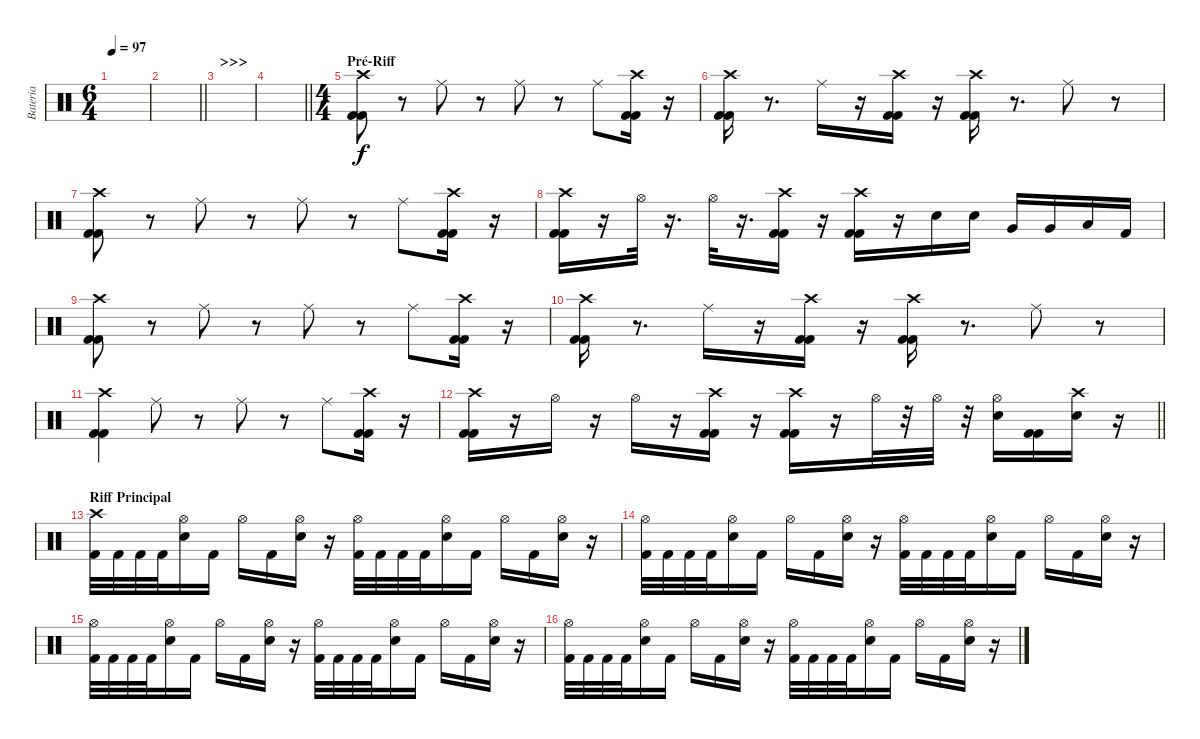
\track ("Bateria" "Bateria") {instrument percussion}
\staff {score}
\articulation defaults
\ts (6 4)
\tempo 97
\clef neutral
\ks c
|
\barLineRight lightlight
|
\section ("" ">>>")
|
\barLineRight lightlight
|
\ts (4 4)
\section ("" "Pré-Riff")
("Crash high (hit)" "Kick (hit) 2" "Kick (hit) 2").8 r.8 "Ride (middle)".8 r.8 "Ride (middle)".8 r.8 "Ride (middle)".8 ("Crash high (hit)" "Kick (hit) 2" "Kick (hit) 2").16 r.16 |
("Crash high (hit)" "Kick (hit) 2" "Kick (hit) 2").16 r.8{d} "Ride (middle)".16 r.16 ("Crash high (hit)" "Kick (hit) 2" "Kick (hit) 2").16 r.16 ("Crash high (hit)" "Kick (hit) 2" "Kick (hit) 2").16 r.8{d} "Ride (middle)".8 r.8 |
("Crash high (hit)" "Kick (hit) 2" "Kick (hit) 2").8 r.8 "Ride (middle)".8 r.8 "Ride (middle)".8 r.8 "Ride (middle)".8 ("Crash high (hit)" "Kick (hit) 2" "Kick (hit) 2").16 r.16 |
("Crash high (hit)" "Kick (hit) 2" "Kick (hit) 2").16 r.16 "Hi-Hat (open)".32 r.16{d} "Hi-Hat (open)".32 r.16{d} ("Crash high (hit)" "Kick (hit) 2" "Kick (hit) 2").16 r.16 ("Crash high (hit)" "Kick (hit) 2" "Kick (hit) 2").16 r.16 "Electric Snare (hit)".16 "Electric Snare (hit)".16 "Very Low Tom (hit)".16 "Very Low Tom (hit)".16 "Low Floor Tom (hit)".16 "Kick (hit) 2".16 |
("Crash high (hit)" "Kick (hit) 2" "Kick (hit) 2").8 r.8 "Ride (middle)".8 r.8 "Ride (middle)".8 r.8 "Ride (middle)".8 ("Crash high (hit)" "Kick (hit) 2" "Kick (hit) 2").16 r.16 |
("Crash high (hit)" "Kick (hit) 2" "Kick (hit) 2").16 r.8{d} "Ride (middle)".16 r.16 ("Crash high (hit)" "Kick (hit) 2" "Kick (hit) 2").16 r.16 ("Crash high (hit)" "Kick (hit) 2" "Kick (hit) 2").16 r.8{d} "Ride (middle)".8 r.8 |
("Crash high (hit)" "Kick (hit) 2" "Kick (hit) 2").4 "Ride (middle)".8 r.8 "Ride (middle)".8 r.8 "Ride (middle)".8 ("Crash high (hit)" "Kick (hit) 2" "Kick (hit) 2").16 r.16 |
\barLineRight lightlight
("Crash high (hit)" "Kick (hit) 2" "Kick (hit) 2").16 r.16 "Hi-Hat (open)".16 r.16 "Hi-Hat (open)".16 r.16 ("Crash high (hit)" "Kick (hit) 2" "Kick (hit) 2").16 r.16 ("Crash high (hit)" "Kick (hit) 2" "Kick (hit) 2").16 r.16 "Hi-Hat (open)".32 r.32 "Hi-Hat (open)".32 r.32 ("Hi-Hat (open)" "Electric Snare (hit)").16 ("Kick (hit) 2" "Kick (hit) 2").16 ("Crash high (hit)" "Electric Snare (hit)").16 r.16 |
\section ("" "Riff Principal")
("Crash high (hit)" "Kick (hit) 2").32 "Kick (hit) 2".32 "Kick (hit) 2".32 "Kick (hit) 2".32 ("Hi-Hat (open)" "Electric Snare (hit)").16 "Kick (hit) 2".16 "Hi-Hat (open)".16 "Kick (hit) 2".16 ("Hi-Hat (open)" "Electric Snare (hit)").16 r.16 ("Hi-Hat (open)" "Kick (hit) 2").32 "Kick (hit) 2".32 "Kick (hit) 2".32 "Kick (hit) 2".32 ("Hi-Hat (open)" "Electric Snare (hit)").16 "Kick (hit) 2".16 "Hi-Hat (open)".16 "Kick (hit) 2".16 ("Hi-Hat (open)" "Electric Snare (hit)").16 r.16 |
("Hi-Hat (open)" "Kick (hit) 2").32 "Kick (hit) 2".32 "Kick (hit) 2".32 "Kick (hit) 2".32 ("Hi-Hat (open)" "Electric Snare (hit)").16 "Kick (hit) 2".16 "Hi-Hat (open)".16 "Kick (hit) 2".16 ("Hi-Hat (open)" "Electric Snare (hit)").16 r.16 ("Hi-Hat (open)" "Kick (hit) 2").32 "Kick (hit) 2".32 "Kick (hit) 2".32 "Kick (hit) 2".32 ("Hi-Hat (open)" "Electric Snare (hit)").16 "Kick (hit) 2".16 "Hi-Hat (open)".16 "Kick (hit) 2".16 ("Hi-Hat (open)" "Electric Snare (hit)").16 r.16 |
("Hi-Hat (open)" "Kick (hit) 2").32 "Kick (hit) 2".32 "Kick (hit) 2".32 "Kick (hit) 2".32 ("Hi-Hat (open)" "Electric Snare (hit)").16 "Kick (hit) 2".16 "Hi-Hat (open)".16 "Kick (hit) 2".16 ("Hi-Hat (open)" "Electric Snare (hit)").16 r.16 ("Hi-Hat (open)" "Kick (hit) 2").32 "Kick (hit) 2".32 "Kick (hit) 2".32 "Kick (hit) 2".32 ("Hi-Hat (open)" "Electric Snare (hit)").16 "Kick (hit) 2".16 "Hi-Hat (open)".16 "Kick (hit) 2".16 ("Hi-Hat (open)" "Electric Snare (hit)").16 r.16 |
("Hi-Hat (open)" "Kick (hit) 2").32 "Kick (hit) 2".32 "Kick (hit) 2".32 "Kick (hit) 2".32 ("Hi-Hat (open)" "Electric Snare (hit)").16 "Kick (hit) 2".16 "Hi-Hat (open)".16 "Kick (hit) 2".16 ("Hi-Hat (open)" "Electric Snare (hit)").16 r.16 ("Hi-Hat (open)" "Kick (hit) 2").32 "Kick (hit) 2".32 "Kick (hit) 2".32 "Kick (hit) 2".32 ("Hi-Hat (open)" "Electric Snare (hit)").16 "Kick (hit) 2".16 "Hi-Hat (open)".16 "Kick (hit) 2".16 ("Hi-Hat (open)" "Electric Snare (hit)").16 r.16
